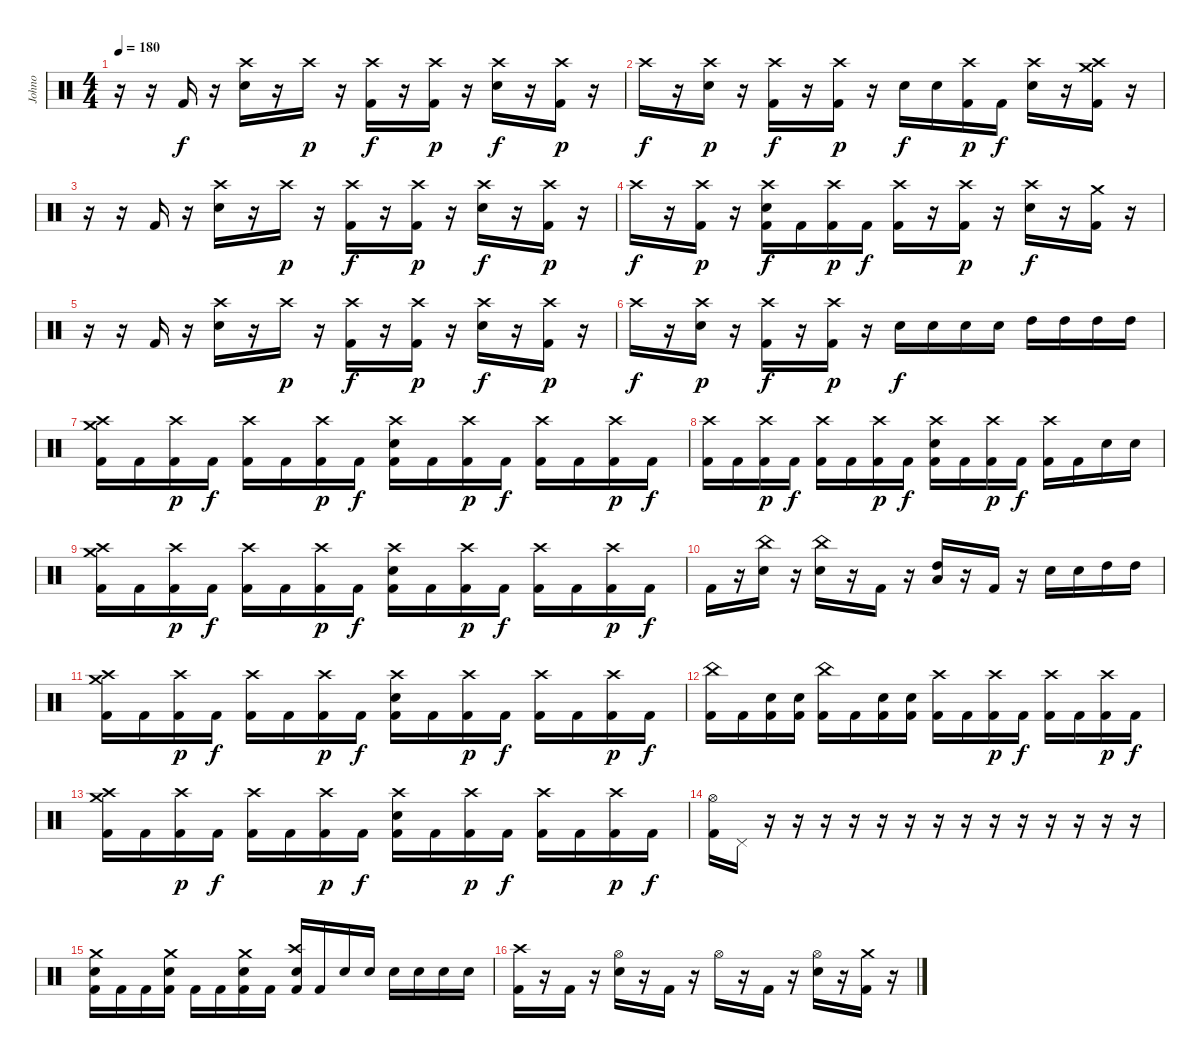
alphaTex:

\track (" Johno" " Johno") {instrument percussion}
\staff {score}
\articulation defaults
\ts (4 4)
\tempo 180
\clef neutral
\ks c
r.16{dy f} r.16 "Kick (hit) 2".16 r.16 ("Crash high (hit)" "Electric Snare (hit)").16 r.16 "Crash high (hit)".16{dy p} r.16 ("Crash high (hit)" "Kick (hit) 2").16{dy f} r.16 ("Crash high (hit)" "Kick (hit) 2").16{dy p} r.16 ("Crash high (hit)" "Electric Snare (hit)").16{dy f} r.16 ("Crash high (hit)" "Kick (hit) 2").16{dy p} r.16 |
"Crash high (hit)".16{dy f} r.16 ("Crash high (hit)" "Electric Snare (hit)").16{dy p} r.16 ("Crash high (hit)" "Kick (hit) 2").16{dy f} r.16 ("Crash high (hit)" "Kick (hit) 2").16{dy p} r.16 "Electric Snare (hit)".16{dy f} "Electric Snare (hit)".16 ("Crash high (hit)" "Kick (hit) 2").16{dy p} "Kick (hit) 2".16{dy f} ("Crash high (hit)" "Electric Snare (hit)").16 r.16 ("Crash high (hit)" "Crash medium (hit)" "Kick (hit) 2").16 r.16 |
r.16 r.16 "Kick (hit) 2".16 r.16 ("Crash high (hit)" "Electric Snare (hit)").16 r.16 "Crash high (hit)".16{dy p} r.16 ("Crash high (hit)" "Kick (hit) 2").16{dy f} r.16 ("Crash high (hit)" "Kick (hit) 2").16{dy p} r.16 ("Crash high (hit)" "Electric Snare (hit)").16{dy f} r.16 ("Crash high (hit)" "Kick (hit) 2").16{dy p} r.16 |
"Crash high (hit)".16{dy f} r.16 ("Crash high (hit)" "Kick (hit) 2").16{dy p} r.16 ("Crash high (hit)" "Electric Snare (hit)" "Kick (hit) 2").16{dy f} "Kick (hit) 2".16 ("Crash high (hit)" "Kick (hit) 2").16{dy p} "Kick (hit) 2".16{dy f} ("Crash high (hit)" "Kick (hit) 2").16 r.16 ("Crash high (hit)" "Kick (hit) 2").16{dy p} r.16 ("Crash high (hit)" "Electric Snare (hit)").16{dy f} r.16 ("Crash medium (hit)" "Kick (hit) 2").16 r.16 |
r.16 r.16 "Kick (hit) 2".16 r.16 ("Crash high (hit)" "Electric Snare (hit)").16 r.16 "Crash high (hit)".16{dy p} r.16 ("Crash high (hit)" "Kick (hit) 2").16{dy f} r.16 ("Crash high (hit)" "Kick (hit) 2").16{dy p} r.16 ("Crash high (hit)" "Electric Snare (hit)").16{dy f} r.16 ("Crash high (hit)" "Kick (hit) 2").16{dy p} r.16 |
"Crash high (hit)".16{dy f} r.16 ("Crash high (hit)" "Electric Snare (hit)").16{dy p} r.16 ("Crash high (hit)" "Kick (hit) 2").16{dy f} r.16 ("Crash high (hit)" "Kick (hit) 2").16{dy p} r.16 "Electric Snare (hit)".16{dy f} "Electric Snare (hit)".16 "Electric Snare (hit)".16 "Electric Snare (hit)".16 "High Tom (hit)".16 "High Tom (hit)".16 "High Tom (hit)".16 "High Tom (hit)".16 |
("Crash medium (hit)" "Crash high (hit)" "Kick (hit) 2").16 "Kick (hit) 2".16 ("Crash high (hit)" "Kick (hit) 2").16{dy p} "Kick (hit) 2".16{dy f} ("Crash high (hit)" "Kick (hit) 2").16 "Kick (hit) 2".16 ("Crash high (hit)" "Kick (hit) 2").16{dy p} "Kick (hit) 2".16{dy f} ("Crash high (hit)" "Electric Snare (hit)" "Kick (hit) 2").16 "Kick (hit) 2".16 ("Crash high (hit)" "Kick (hit) 2").16{dy p} "Kick (hit) 2".16{dy f} ("Crash high (hit)" "Kick (hit) 2").16 "Kick (hit) 2".16 ("Crash high (hit)" "Kick (hit) 2").16{dy p} "Kick (hit) 2".16{dy f} |
("Crash high (hit)" "Kick (hit) 2").16 "Kick (hit) 2".16 ("Crash high (hit)" "Kick (hit) 2").16{dy p} "Kick (hit) 2".16{dy f} ("Crash high (hit)" "Kick (hit) 2").16 "Kick (hit) 2".16 ("Crash high (hit)" "Kick (hit) 2").16{dy p} "Kick (hit) 2".16{dy f} ("Crash high (hit)" "Electric Snare (hit)" "Kick (hit) 2").16 "Kick (hit) 2".16 ("Crash high (hit)" "Kick (hit) 2").16{dy p} "Kick (hit) 2".16{dy f} ("Crash high (hit)" "Kick (hit) 2").16 "Kick (hit) 2".16 "Electric Snare (hit)".16 "Electric Snare (hit)".16 |
("Crash medium (hit)" "Crash high (hit)" "Kick (hit) 2").16 "Kick (hit) 2".16 ("Crash high (hit)" "Kick (hit) 2").16{dy p} "Kick (hit) 2".16{dy f} ("Crash high (hit)" "Kick (hit) 2").16 "Kick (hit) 2".16 ("Crash high (hit)" "Kick (hit) 2").16{dy p} "Kick (hit) 2".16{dy f} ("Crash high (hit)" "Electric Snare (hit)" "Kick (hit) 2").16 "Kick (hit) 2".16 ("Crash high (hit)" "Kick (hit) 2").16{dy p} "Kick (hit) 2".16{dy f} ("Crash high (hit)" "Kick (hit) 2").16 "Kick (hit) 2".16 ("Crash high (hit)" "Kick (hit) 2").16{dy p} "Kick (hit) 2".16{dy f} |
"Kick (hit) 2".16 r.16 ("China (hit)" "Electric Snare (hit)").16 r.16 ("China (hit)" "Electric Snare (hit)").16 r.16 "Kick (hit) 2".16 r.16 ("Low Floor Tom (hit)" "High Tom (hit)").16 r.16 "Kick (hit) 2".16 r.16 "Electric Snare (hit)".16 "Electric Snare (hit)".16 "High Tom (hit)".16 "High Tom (hit)".16 |
("Crash medium (hit)" "Crash high (hit)" "Kick (hit) 2").16 "Kick (hit) 2".16 ("Crash high (hit)" "Kick (hit) 2").16{dy p} "Kick (hit) 2".16{dy f} ("Crash high (hit)" "Kick (hit) 2").16 "Kick (hit) 2".16 ("Crash high (hit)" "Kick (hit) 2").16{dy p} "Kick (hit) 2".16{dy f} ("Crash high (hit)" "Electric Snare (hit)" "Kick (hit) 2").16 "Kick (hit) 2".16 ("Crash high (hit)" "Kick (hit) 2").16{dy p} "Kick (hit) 2".16{dy f} ("Crash high (hit)" "Kick (hit) 2").16 "Kick (hit) 2".16 ("Crash high (hit)" "Kick (hit) 2").16{dy p} "Kick (hit) 2".16{dy f} |
("China (hit)" "Kick (hit) 2").16 "Kick (hit) 2".16 ("Electric Snare (hit)" "Kick (hit) 2").16 ("Electric Snare (hit)" "Kick (hit) 2").16 ("China (hit)" "Kick (hit) 2").16 "Kick (hit) 2".16 ("Electric Snare (hit)" "Kick (hit) 2").16 ("Electric Snare (hit)" "Kick (hit) 2").16 ("Crash high (hit)" "Kick (hit) 2").16 "Kick (hit) 2".16 ("Crash high (hit)" "Kick (hit) 2").16{dy p} "Kick (hit) 2".16{dy f} ("Crash high (hit)" "Kick (hit) 2").16 "Kick (hit) 2".16 ("Crash high (hit)" "Kick (hit) 2").16{dy p} "Kick (hit) 2".16{dy f} |
("Crash medium (hit)" "Crash high (hit)" "Kick (hit) 2").16 "Kick (hit) 2".16 ("Crash high (hit)" "Kick (hit) 2").16{dy p} "Kick (hit) 2".16{dy f} ("Crash high (hit)" "Kick (hit) 2").16 "Kick (hit) 2".16 ("Crash high (hit)" "Kick (hit) 2").16{dy p} "Kick (hit) 2".16{dy f} ("Crash high (hit)" "Electric Snare (hit)" "Kick (hit) 2").16 "Kick (hit) 2".16 ("Crash high (hit)" "Kick (hit) 2").16{dy p} "Kick (hit) 2".16{dy f} ("Crash high (hit)" "Kick (hit) 2").16 "Kick (hit) 2".16 ("Crash high (hit)" "Kick (hit) 2").16{dy p} "Kick (hit) 2".16{dy f} |
("Hi-Hat (open)" "Kick (hit) 2").16 "Pedal Hi-Hat (hit)".16 r.16 r.16 r.16 r.16 r.16 r.16 r.16 r.16 r.16 r.16 r.16 r.16 r.16 r.16 |
("Crash medium (hit)" "Electric Snare (hit)" "Kick (hit) 2").16 "Kick (hit) 2".16 "Kick (hit) 2".16 ("Crash medium (hit)" "Electric Snare (hit)" "Kick (hit) 2").16 "Kick (hit) 2".16 "Kick (hit) 2".16 ("Crash medium (hit)" "Electric Snare (hit)" "Kick (hit) 2").16 "Kick (hit) 2".16 ("Crash high (hit)" "Electric Snare (hit)" "Kick (hit) 2").16 "Kick (hit) 2".16 "Electric Snare (hit)".16 "Electric Snare (hit)".16 "Electric Snare (hit)".16 "Electric Snare (hit)".16 "Electric Snare (hit)".16 "Electric Snare (hit)".16 |
("Crash high (hit)" "Kick (hit) 2").16 r.16 "Kick (hit) 2".16 r.16 ("Hi-Hat (open)" "Electric Snare (hit)").16 r.16 "Kick (hit) 2".16 r.16 "Hi-Hat (open)".16 r.16 "Kick (hit) 2".16 r.16 ("Hi-Hat (open)" "Electric Snare (hit)").16 r.16 ("Crash medium (hit)" "Kick (hit) 2").16 r.16
